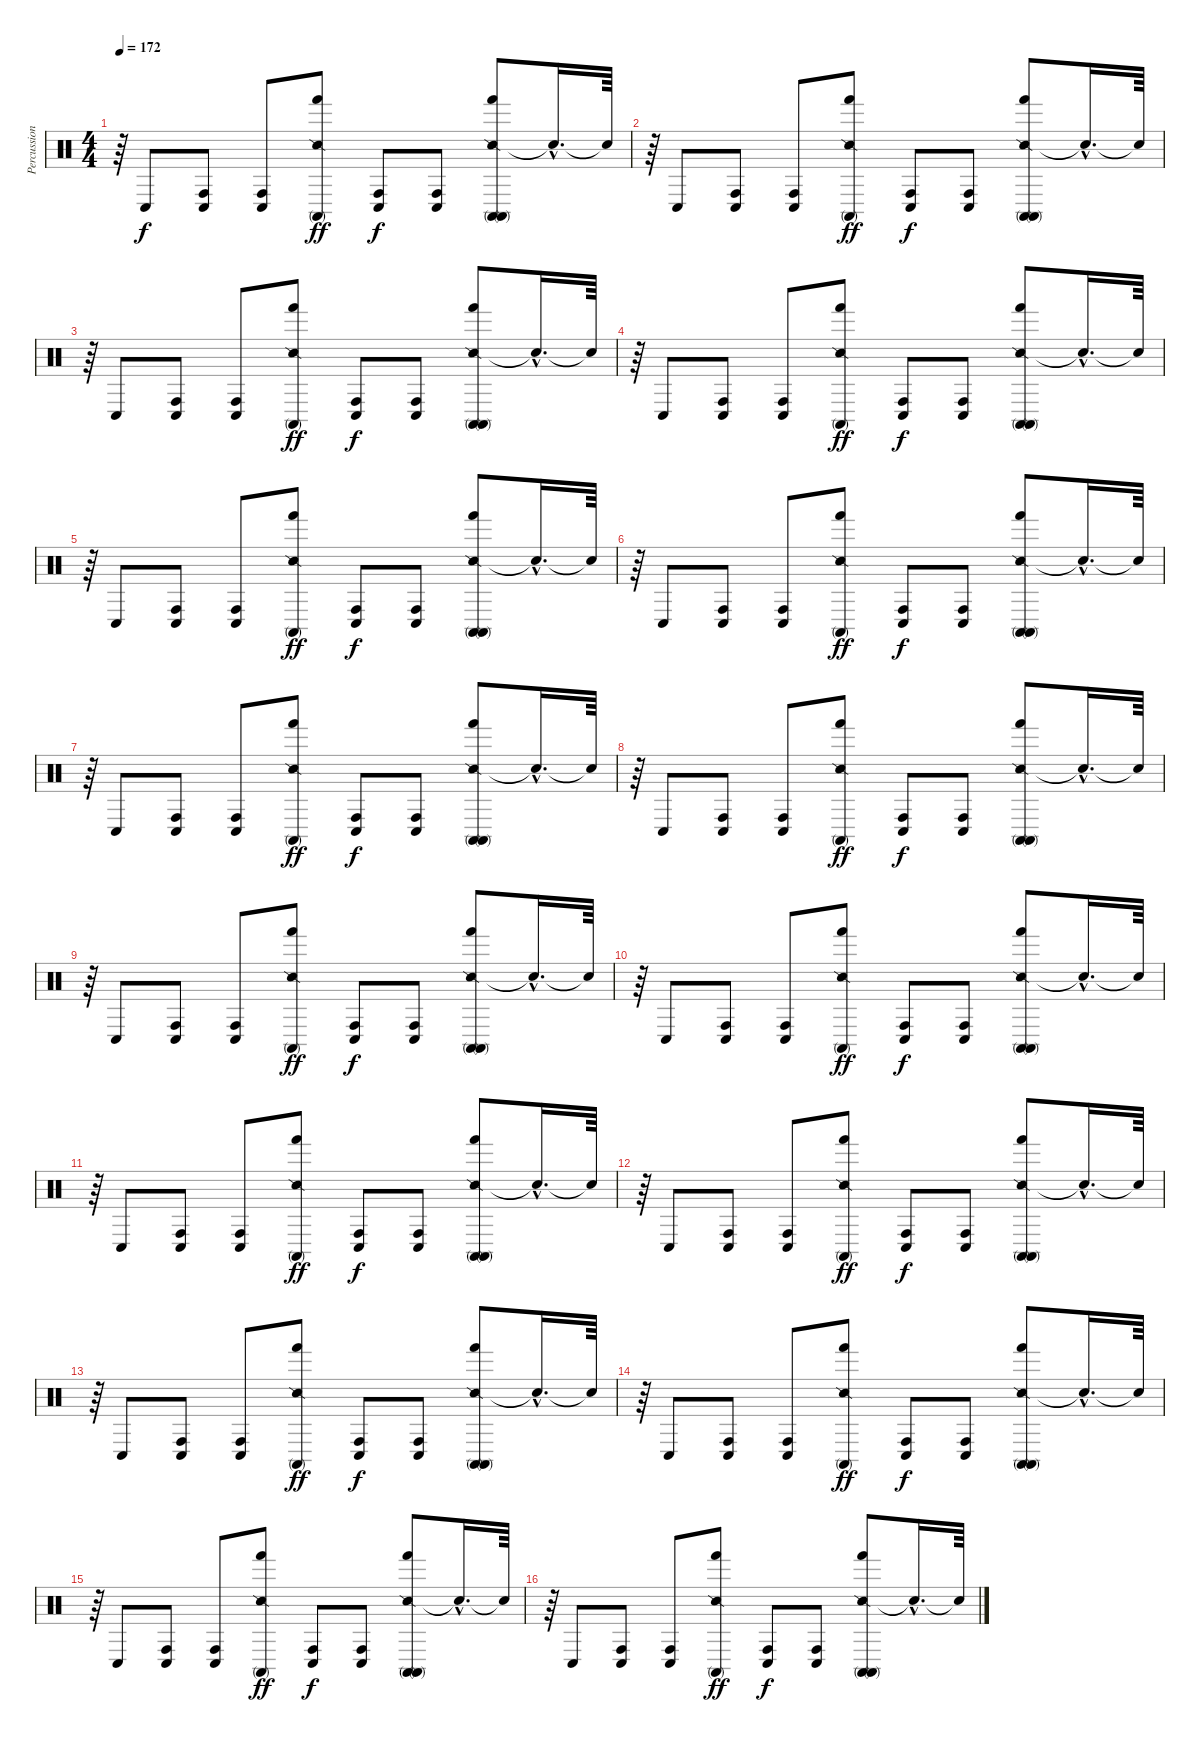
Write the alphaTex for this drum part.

\track ("Percussion" "Percussion") {instrument percussion}
\staff {score}
\articulation defaults
\ts (4 4)
\tempo 172
\clef neutral
\ks c
r.64{dy f} "Conga low (hit)".8 ("Conga high (hit)" "Conga low (hit)").8 ("Conga high (hit)" "Conga low (hit)").8 ("Snare (side stick) 2" "Hand (hit)" "Conga high (mute)").8{dy ff} ("Conga high (hit)" "Conga low (hit)").8{dy f} ("Conga high (hit)" "Conga low (hit)").8 ("Snare (side stick) 2" "Hand (hit)" "Conga high (mute)" "Conga high (mute)").8 "Snare (hit)"{hac t}.16{d} "Snare (hit)"{t}.64 |
r.64 "Conga low (hit)".8 ("Conga high (hit)" "Conga low (hit)").8 ("Conga high (hit)" "Conga low (hit)").8 ("Snare (side stick) 2" "Hand (hit)" "Conga high (mute)").8{dy ff} ("Conga high (hit)" "Conga low (hit)").8{dy f} ("Conga high (hit)" "Conga low (hit)").8 ("Snare (side stick) 2" "Hand (hit)" "Conga high (mute)" "Conga high (mute)").8 "Snare (hit)"{hac t}.16{d} "Snare (hit)"{t}.64 |
r.64 "Conga low (hit)".8 ("Conga high (hit)" "Conga low (hit)").8 ("Conga high (hit)" "Conga low (hit)").8 ("Snare (side stick) 2" "Hand (hit)" "Conga high (mute)").8{dy ff} ("Conga high (hit)" "Conga low (hit)").8{dy f} ("Conga high (hit)" "Conga low (hit)").8 ("Snare (side stick) 2" "Hand (hit)" "Conga high (mute)" "Conga high (mute)").8 "Snare (hit)"{hac t}.16{d} "Snare (hit)"{t}.64 |
r.64 "Conga low (hit)".8 ("Conga high (hit)" "Conga low (hit)").8 ("Conga high (hit)" "Conga low (hit)").8 ("Snare (side stick) 2" "Hand (hit)" "Conga high (mute)").8{dy ff} ("Conga high (hit)" "Conga low (hit)").8{dy f} ("Conga high (hit)" "Conga low (hit)").8 ("Snare (side stick) 2" "Hand (hit)" "Conga high (mute)" "Conga high (mute)").8 "Snare (hit)"{hac t}.16{d} "Snare (hit)"{t}.64 |
r.64 "Conga low (hit)".8 ("Conga high (hit)" "Conga low (hit)").8 ("Conga high (hit)" "Conga low (hit)").8 ("Snare (side stick) 2" "Hand (hit)" "Conga high (mute)").8{dy ff} ("Conga high (hit)" "Conga low (hit)").8{dy f} ("Conga high (hit)" "Conga low (hit)").8 ("Snare (side stick) 2" "Hand (hit)" "Conga high (mute)" "Conga high (mute)").8 "Snare (hit)"{hac t}.16{d} "Snare (hit)"{t}.64 |
r.64 "Conga low (hit)".8 ("Conga high (hit)" "Conga low (hit)").8 ("Conga high (hit)" "Conga low (hit)").8 ("Snare (side stick) 2" "Hand (hit)" "Conga high (mute)").8{dy ff} ("Conga high (hit)" "Conga low (hit)").8{dy f} ("Conga high (hit)" "Conga low (hit)").8 ("Snare (side stick) 2" "Hand (hit)" "Conga high (mute)" "Conga high (mute)").8 "Snare (hit)"{hac t}.16{d} "Snare (hit)"{t}.64 |
r.64 "Conga low (hit)".8 ("Conga high (hit)" "Conga low (hit)").8 ("Conga high (hit)" "Conga low (hit)").8 ("Snare (side stick) 2" "Hand (hit)" "Conga high (mute)").8{dy ff} ("Conga high (hit)" "Conga low (hit)").8{dy f} ("Conga high (hit)" "Conga low (hit)").8 ("Snare (side stick) 2" "Hand (hit)" "Conga high (mute)" "Conga high (mute)").8 "Snare (hit)"{hac t}.16{d} "Snare (hit)"{t}.64 |
r.64 "Conga low (hit)".8 ("Conga high (hit)" "Conga low (hit)").8 ("Conga high (hit)" "Conga low (hit)").8 ("Snare (side stick) 2" "Hand (hit)" "Conga high (mute)").8{dy ff} ("Conga high (hit)" "Conga low (hit)").8{dy f} ("Conga high (hit)" "Conga low (hit)").8 ("Snare (side stick) 2" "Hand (hit)" "Conga high (mute)" "Conga high (mute)").8 "Snare (hit)"{hac t}.16{d} "Snare (hit)"{t}.64 |
r.64 "Conga low (hit)".8 ("Conga high (hit)" "Conga low (hit)").8 ("Conga high (hit)" "Conga low (hit)").8 ("Snare (side stick) 2" "Hand (hit)" "Conga high (mute)").8{dy ff} ("Conga high (hit)" "Conga low (hit)").8{dy f} ("Conga high (hit)" "Conga low (hit)").8 ("Snare (side stick) 2" "Hand (hit)" "Conga high (mute)" "Conga high (mute)").8 "Snare (hit)"{hac t}.16{d} "Snare (hit)"{t}.64 |
r.64 "Conga low (hit)".8 ("Conga high (hit)" "Conga low (hit)").8 ("Conga high (hit)" "Conga low (hit)").8 ("Snare (side stick) 2" "Hand (hit)" "Conga high (mute)").8{dy ff} ("Conga high (hit)" "Conga low (hit)").8{dy f} ("Conga high (hit)" "Conga low (hit)").8 ("Snare (side stick) 2" "Hand (hit)" "Conga high (mute)" "Conga high (mute)").8 "Snare (hit)"{hac t}.16{d} "Snare (hit)"{t}.64 |
r.64 "Conga low (hit)".8 ("Conga high (hit)" "Conga low (hit)").8 ("Conga high (hit)" "Conga low (hit)").8 ("Snare (side stick) 2" "Hand (hit)" "Conga high (mute)").8{dy ff} ("Conga high (hit)" "Conga low (hit)").8{dy f} ("Conga high (hit)" "Conga low (hit)").8 ("Snare (side stick) 2" "Hand (hit)" "Conga high (mute)" "Conga high (mute)").8 "Snare (hit)"{hac t}.16{d} "Snare (hit)"{t}.64 |
r.64 "Conga low (hit)".8 ("Conga high (hit)" "Conga low (hit)").8 ("Conga high (hit)" "Conga low (hit)").8 ("Snare (side stick) 2" "Hand (hit)" "Conga high (mute)").8{dy ff} ("Conga high (hit)" "Conga low (hit)").8{dy f} ("Conga high (hit)" "Conga low (hit)").8 ("Snare (side stick) 2" "Hand (hit)" "Conga high (mute)" "Conga high (mute)").8 "Snare (hit)"{hac t}.16{d} "Snare (hit)"{t}.64 |
r.64 "Conga low (hit)".8 ("Conga high (hit)" "Conga low (hit)").8 ("Conga high (hit)" "Conga low (hit)").8 ("Snare (side stick) 2" "Hand (hit)" "Conga high (mute)").8{dy ff} ("Conga high (hit)" "Conga low (hit)").8{dy f} ("Conga high (hit)" "Conga low (hit)").8 ("Snare (side stick) 2" "Hand (hit)" "Conga high (mute)" "Conga high (mute)").8 "Snare (hit)"{hac t}.16{d} "Snare (hit)"{t}.64 |
r.64 "Conga low (hit)".8 ("Conga high (hit)" "Conga low (hit)").8 ("Conga high (hit)" "Conga low (hit)").8 ("Snare (side stick) 2" "Hand (hit)" "Conga high (mute)").8{dy ff} ("Conga high (hit)" "Conga low (hit)").8{dy f} ("Conga high (hit)" "Conga low (hit)").8 ("Snare (side stick) 2" "Hand (hit)" "Conga high (mute)" "Conga high (mute)").8 "Snare (hit)"{hac t}.16{d} "Snare (hit)"{t}.64 |
r.64 "Conga low (hit)".8 ("Conga high (hit)" "Conga low (hit)").8 ("Conga high (hit)" "Conga low (hit)").8 ("Snare (side stick) 2" "Hand (hit)" "Conga high (mute)").8{dy ff} ("Conga high (hit)" "Conga low (hit)").8{dy f} ("Conga high (hit)" "Conga low (hit)").8 ("Snare (side stick) 2" "Hand (hit)" "Conga high (mute)" "Conga high (mute)").8 "Snare (hit)"{hac t}.16{d} "Snare (hit)"{t}.64 |
r.64 "Conga low (hit)".8 ("Conga high (hit)" "Conga low (hit)").8 ("Conga high (hit)" "Conga low (hit)").8 ("Snare (side stick) 2" "Hand (hit)" "Conga high (mute)").8{dy ff} ("Conga high (hit)" "Conga low (hit)").8{dy f} ("Conga high (hit)" "Conga low (hit)").8 ("Snare (side stick) 2" "Hand (hit)" "Conga high (mute)" "Conga high (mute)").8 "Snare (hit)"{hac t}.16{d} "Snare (hit)"{t}.64
